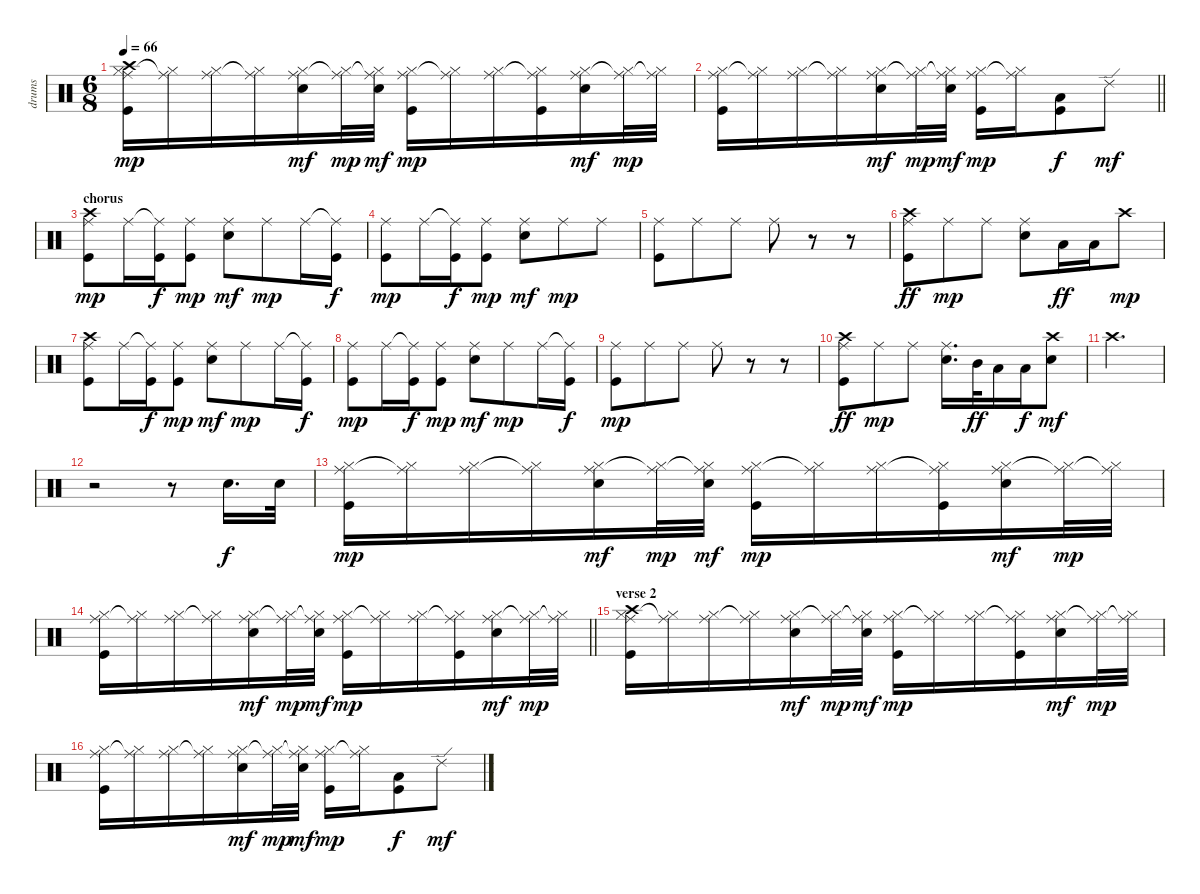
\track ("drums" "drums") {instrument percussion}
\staff {score}
\articulation defaults
\ts (6 8)
\tempo 66
\clef neutral
\ks c
("Crash high (hit)" "Hi-Hat (closed)" "Ride (middle)" "Kick (hit)").16{dy mp} ("Hi-Hat (closed)" "Ride (middle)"{t}).16 ("Hi-Hat (closed)" "Ride (middle)").16 ("Hi-Hat (closed)" "Ride (middle)"{t}).16 ("Hi-Hat (closed)" "Ride (middle)" "Electric Snare (hit)").16{dy mf} ("Hi-Hat (closed)" "Ride (middle)"{t}).32{dy mp} ("Hi-Hat (closed)" "Ride (middle)"{t} "Electric Snare (hit)").32{dy mf} ("Hi-Hat (closed)" "Ride (middle)" "Kick (hit)").16{dy mp} ("Hi-Hat (closed)" "Ride (middle)"{t}).16 ("Hi-Hat (closed)" "Ride (middle)").16 ("Hi-Hat (closed)" "Ride (middle)"{t} "Kick (hit)").16 ("Hi-Hat (closed)" "Ride (middle)" "Electric Snare (hit)").16{dy mf} ("Hi-Hat (closed)" "Ride (middle)"{t}).32{dy mp} ("Hi-Hat (closed)" "Ride (middle)"{t}).32 |
\barLineRight lightlight
("Hi-Hat (closed)" "Ride (middle)" "Kick (hit)").16 ("Hi-Hat (closed)" "Ride (middle)"{t}).16 ("Hi-Hat (closed)" "Ride (middle)").16 ("Hi-Hat (closed)" "Ride (middle)"{t}).16 ("Hi-Hat (closed)" "Ride (middle)" "Electric Snare (hit)").16{dy mf} ("Hi-Hat (closed)" "Ride (middle)"{t}).32{dy mp} ("Hi-Hat (closed)" "Ride (middle)"{t} "Electric Snare (hit)").32{dy mf} ("Hi-Hat (closed)" "Ride (middle)" "Kick (hit)").16{dy mp} ("Hi-Hat (closed)" "Ride (middle)"{t}).16 ("Low Tom (hit)" "Kick (hit)").8{dy f} "Ride (edge) 2".8{dy mf} |
\section ("" "chorus")
("Crash high (hit)" "Ride (middle)" "Kick (hit)").8{dy mp} "Ride (middle)".16 ("Ride (middle)"{t} "Kick (hit)").16{dy f} ("Ride (middle)" "Kick (hit)").8{dy mp} ("Ride (middle)" "Electric Snare (hit)").8{dy mf} "Ride (middle)".8{dy mp} "Ride (middle)".16 ("Ride (middle)"{t} "Kick (hit)").16{dy f} |
("Ride (middle)" "Kick (hit)").8{dy mp} "Ride (middle)".16 ("Ride (middle)"{t} "Kick (hit)").16{dy f} ("Ride (middle)" "Kick (hit)").8{dy mp} ("Ride (middle)" "Electric Snare (hit)").8{dy mf} "Ride (middle)".8{dy mp} "Ride (middle)".8 |
("Ride (middle)" "Kick (hit)").8 "Ride (middle)".8 "Ride (middle)".8 "Ride (middle)".8 r.8 r.8 |
("Crash high (hit)" "Ride (middle)" "Kick (hit)").8{dy ff} "Ride (middle)".8{dy mp} "Ride (middle)".8 ("Ride (middle)" "Electric Snare (hit)").8 "Low Tom (hit)".16{dy ff} "Low Floor Tom (hit)".16 "Crash high (hit)".8{dy mp} |
("Crash high (hit)" "Ride (middle)" "Kick (hit)").8 "Ride (middle)".16 ("Ride (middle)"{t} "Kick (hit)").16{dy f} ("Ride (middle)" "Kick (hit)").8{dy mp} ("Ride (middle)" "Electric Snare (hit)").8{dy mf} "Ride (middle)".8{dy mp} "Ride (middle)".16 ("Ride (middle)"{t} "Kick (hit)").16{dy f} |
("Ride (middle)" "Kick (hit)").8{dy mp} "Ride (middle)".16 ("Ride (middle)"{t} "Kick (hit)").16{dy f} ("Ride (middle)" "Kick (hit)").8{dy mp} ("Ride (middle)" "Electric Snare (hit)").8{dy mf} "Ride (middle)".8{dy mp} "Ride (middle)".16 ("Ride (middle)"{t} "Kick (hit)").16{dy f} |
("Ride (middle)" "Kick (hit)").8{dy mp} "Ride (middle)".8 "Ride (middle)".8 "Ride (middle)".8 r.8 r.8 |
("Crash high (hit)" "Ride (middle)" "Kick (hit)").8{dy ff} "Ride (middle)".8{dy mp} "Ride (middle)".8 ("Ride (middle)" "Electric Snare (hit)").16{d} "Mid Tom (hit)".32{dy ff} "Low Tom (hit)".16 "Low Floor Tom (hit)".16{dy f} ("Crash high (hit)" "Electric Snare (hit)").8{dy mf} |
"Crash high (hit)".2{d} |
r.2 r.8 "Electric Snare (hit)".16{d dy f} "Electric Snare (hit)".32 |
("Hi-Hat (closed)" "Ride (middle)" "Kick (hit)").16{dy mp} ("Hi-Hat (closed)" "Ride (middle)"{t}).16 ("Hi-Hat (closed)" "Ride (middle)").16 ("Hi-Hat (closed)" "Ride (middle)"{t}).16 ("Hi-Hat (closed)" "Ride (middle)" "Electric Snare (hit)").16{dy mf} ("Hi-Hat (closed)" "Ride (middle)"{t}).32{dy mp} ("Hi-Hat (closed)" "Ride (middle)"{t} "Electric Snare (hit)").32{dy mf} ("Hi-Hat (closed)" "Ride (middle)" "Kick (hit)").16{dy mp} ("Hi-Hat (closed)" "Ride (middle)"{t}).16 ("Hi-Hat (closed)" "Ride (middle)").16 ("Hi-Hat (closed)" "Ride (middle)"{t} "Kick (hit)").16 ("Hi-Hat (closed)" "Ride (middle)" "Electric Snare (hit)").16{dy mf} ("Hi-Hat (closed)" "Ride (middle)"{t}).32{dy mp} ("Hi-Hat (closed)" "Ride (middle)"{t}).32 |
\barLineRight lightlight
("Hi-Hat (closed)" "Ride (middle)" "Kick (hit)").16 ("Hi-Hat (closed)" "Ride (middle)"{t}).16 ("Hi-Hat (closed)" "Ride (middle)").16 ("Hi-Hat (closed)" "Ride (middle)"{t}).16 ("Hi-Hat (closed)" "Ride (middle)" "Electric Snare (hit)").16{dy mf} ("Hi-Hat (closed)" "Ride (middle)"{t}).32{dy mp} ("Hi-Hat (closed)" "Ride (middle)"{t} "Electric Snare (hit)").32{dy mf} ("Hi-Hat (closed)" "Ride (middle)" "Kick (hit)").16{dy mp} ("Hi-Hat (closed)" "Ride (middle)"{t}).16 ("Hi-Hat (closed)" "Ride (middle)").16 ("Hi-Hat (closed)" "Ride (middle)"{t} "Kick (hit)").16 ("Hi-Hat (closed)" "Ride (middle)" "Electric Snare (hit)").16{dy mf} ("Hi-Hat (closed)" "Ride (middle)"{t}).32{dy mp} ("Hi-Hat (closed)" "Ride (middle)"{t}).32 |
\section ("" "verse 2")
("Crash high (hit)" "Hi-Hat (closed)" "Ride (middle)" "Kick (hit)").16 ("Hi-Hat (closed)" "Ride (middle)"{t}).16 ("Hi-Hat (closed)" "Ride (middle)").16 ("Hi-Hat (closed)" "Ride (middle)"{t}).16 ("Hi-Hat (closed)" "Ride (middle)" "Electric Snare (hit)").16{dy mf} ("Hi-Hat (closed)" "Ride (middle)"{t}).32{dy mp} ("Hi-Hat (closed)" "Ride (middle)"{t} "Electric Snare (hit)").32{dy mf} ("Hi-Hat (closed)" "Ride (middle)" "Kick (hit)").16{dy mp} ("Hi-Hat (closed)" "Ride (middle)"{t}).16 ("Hi-Hat (closed)" "Ride (middle)").16 ("Hi-Hat (closed)" "Ride (middle)"{t} "Kick (hit)").16 ("Hi-Hat (closed)" "Ride (middle)" "Electric Snare (hit)").16{dy mf} ("Hi-Hat (closed)" "Ride (middle)"{t}).32{dy mp} ("Hi-Hat (closed)" "Ride (middle)"{t}).32 |
("Hi-Hat (closed)" "Ride (middle)" "Kick (hit)").16 ("Hi-Hat (closed)" "Ride (middle)"{t}).16 ("Hi-Hat (closed)" "Ride (middle)").16 ("Hi-Hat (closed)" "Ride (middle)"{t}).16 ("Hi-Hat (closed)" "Ride (middle)" "Electric Snare (hit)").16{dy mf} ("Hi-Hat (closed)" "Ride (middle)"{t}).32{dy mp} ("Hi-Hat (closed)" "Ride (middle)"{t} "Electric Snare (hit)").32{dy mf} ("Hi-Hat (closed)" "Ride (middle)" "Kick (hit)").16{dy mp} ("Hi-Hat (closed)" "Ride (middle)"{t}).16 ("Low Tom (hit)" "Kick (hit)").8{dy f} "Ride (edge) 2".8{dy mf}
